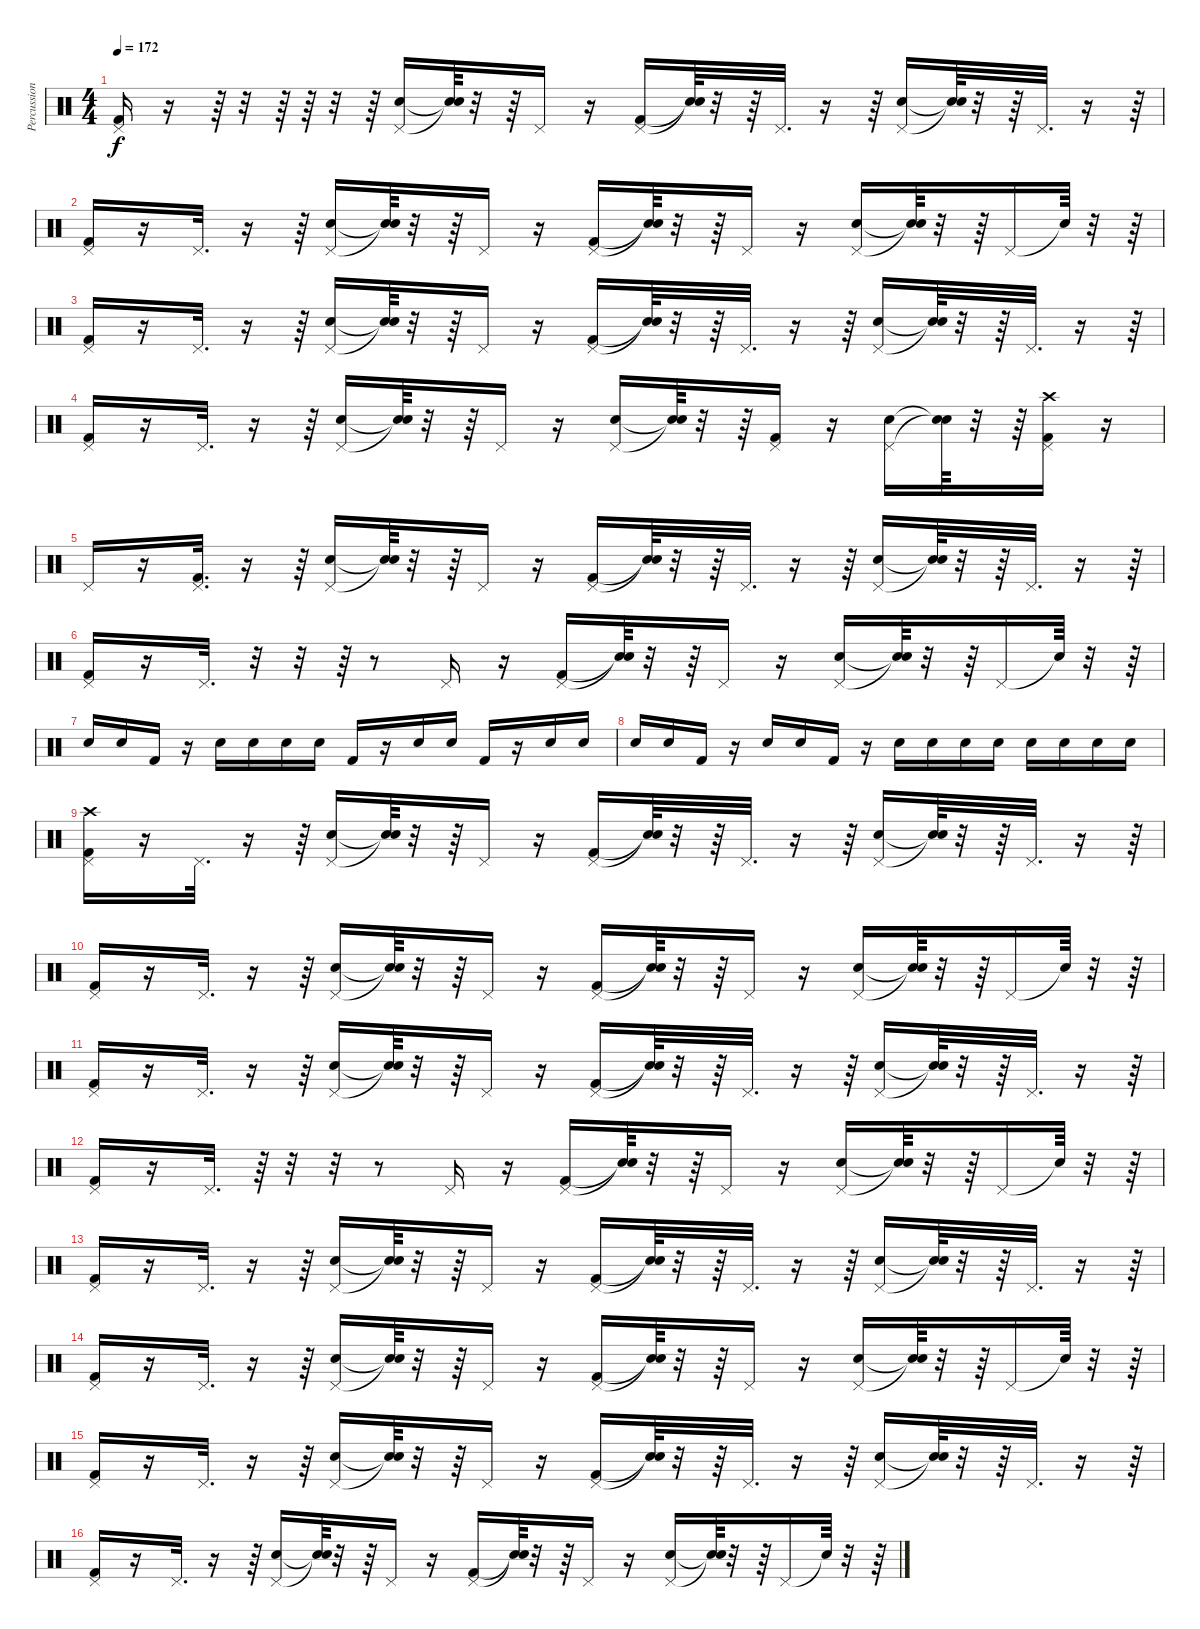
\track ("Percussions" "Percussion") {instrument percussion}
\staff {score}
\articulation defaults
\ts (4 4)
\tempo 172
\clef neutral
\ks c
("Pedal Hi-Hat (hit)" "Kick (hit) 2").16{dy f} r.16 r.64 r.32 r.64 r.64 r.32 r.64 ("Pedal Hi-Hat (hit)" "Snare (hit) 2").16 ("Snare (hit)"{t} "Snare (hit)"{t}).64 r.32 r.64 "Pedal Hi-Hat (hit)".16 r.16 ("Pedal Hi-Hat (hit)" "Kick (hit) 2").16 ("Snare (hit)"{t} "Snare (hit)"{t}).64 r.32 r.64 "Pedal Hi-Hat (hit)".32{d} r.16 r.64 ("Pedal Hi-Hat (hit)" "Snare (hit) 2").16 ("Snare (hit)"{t} "Snare (hit)"{t}).64 r.32 r.64 "Pedal Hi-Hat (hit)".32{d} r.16 r.64 |
("Pedal Hi-Hat (hit)" "Kick (hit) 2").16 r.16 "Pedal Hi-Hat (hit)".32{d} r.16 r.64 ("Pedal Hi-Hat (hit)" "Snare (hit) 2").16 ("Snare (hit)"{t} "Snare (hit)"{t}).64 r.32 r.64 "Pedal Hi-Hat (hit)".16 r.16 ("Pedal Hi-Hat (hit)" "Kick (hit) 2").16 ("Snare (hit)"{t} "Snare (hit)"{t}).64 r.32 r.64 "Pedal Hi-Hat (hit)".16 r.16 ("Pedal Hi-Hat (hit)" "Snare (hit) 2").16 ("Snare (hit)"{t} "Snare (hit)"{t}).64 r.32 r.64 "Pedal Hi-Hat (hit)".16 "Snare (hit)"{t}.64 r.32 r.64 |
("Pedal Hi-Hat (hit)" "Kick (hit) 2").16 r.16 "Pedal Hi-Hat (hit)".32{d} r.16 r.64 ("Pedal Hi-Hat (hit)" "Snare (hit) 2").16 ("Snare (hit)"{t} "Snare (hit)"{t}).64 r.32 r.64 "Pedal Hi-Hat (hit)".16 r.16 ("Pedal Hi-Hat (hit)" "Kick (hit) 2").16 ("Snare (hit)"{t} "Snare (hit)"{t}).64 r.32 r.64 "Pedal Hi-Hat (hit)".32{d} r.16 r.64 ("Pedal Hi-Hat (hit)" "Snare (hit) 2").16 ("Snare (hit)"{t} "Snare (hit)"{t}).64 r.32 r.64 "Pedal Hi-Hat (hit)".32{d} r.16 r.64 |
("Pedal Hi-Hat (hit)" "Kick (hit) 2").16 r.16 "Pedal Hi-Hat (hit)".32{d} r.16 r.64 ("Pedal Hi-Hat (hit)" "Snare (hit) 2").16 ("Snare (hit)"{t} "Snare (hit)"{t}).64 r.32 r.64 "Pedal Hi-Hat (hit)".16 r.16 ("Pedal Hi-Hat (hit)" "Snare (hit) 2").16 ("Snare (hit)"{t} "Snare (hit)"{t}).64 r.32 r.64 ("Pedal Hi-Hat (hit)" "Kick (hit) 2").16 r.16 ("Pedal Hi-Hat (hit)" "Snare (hit) 2").16 ("Snare (hit)"{t} "Snare (hit)"{t}).64 r.32 r.64 ("Crash high (hit)" "Pedal Hi-Hat (hit)" "Kick (hit) 2").16 r.16 |
"Pedal Hi-Hat (hit)".16 r.16 ("Pedal Hi-Hat (hit)" "Kick (hit) 2").32{d} r.16 r.64 ("Pedal Hi-Hat (hit)" "Snare (hit) 2").16 ("Snare (hit)"{t} "Snare (hit)"{t}).64 r.32 r.64 "Pedal Hi-Hat (hit)".16 r.16 ("Pedal Hi-Hat (hit)" "Kick (hit) 2").16 ("Snare (hit)"{t} "Snare (hit)"{t}).64 r.32 r.64 "Pedal Hi-Hat (hit)".32{d} r.16 r.64 ("Pedal Hi-Hat (hit)" "Snare (hit) 2").16 ("Snare (hit)"{t} "Snare (hit)"{t}).64 r.32 r.64 "Pedal Hi-Hat (hit)".32{d} r.16 r.64 |
("Pedal Hi-Hat (hit)" "Kick (hit) 2").16 r.16 "Pedal Hi-Hat (hit)".32{d} r.32 r.32 r.64 r.8 "Pedal Hi-Hat (hit)".16 r.16 ("Pedal Hi-Hat (hit)" "Kick (hit) 2").16 ("Snare (hit)"{t} "Snare (hit)"{t}).64 r.32 r.64 "Pedal Hi-Hat (hit)".16 r.16 ("Pedal Hi-Hat (hit)" "Snare (hit) 2").16 ("Snare (hit)"{t} "Snare (hit)"{t}).64 r.32 r.64 "Pedal Hi-Hat (hit)".16 "Snare (hit)"{t}.64 r.32 r.64 |
"Snare (hit) 2".16 "Snare (hit) 2".16 "Kick (hit) 2".16 r.16 "Snare (hit) 2".16 "Snare (hit) 2".16 "Snare (hit) 2".16 "Snare (hit) 2".16 "Kick (hit) 2".16 r.16 "Snare (hit) 2".16 "Snare (hit) 2".16 "Kick (hit) 2".16 r.16 "Snare (hit) 2".16 "Snare (hit) 2".16 |
"Snare (hit) 2".16 "Snare (hit) 2".16 "Kick (hit) 2".16 r.16 "Snare (hit) 2".16 "Snare (hit) 2".16 "Kick (hit) 2".16 r.16 "Snare (hit) 2".16 "Snare (hit) 2".16 "Snare (hit) 2".16 "Snare (hit) 2".16 "Snare (hit) 2".16 "Snare (hit) 2".16 "Snare (hit) 2".16 "Snare (hit) 2".16 |
("Pedal Hi-Hat (hit)" "Crash high (hit)" "Kick (hit) 2").16 r.16 "Pedal Hi-Hat (hit)".32{d} r.16 r.64 ("Pedal Hi-Hat (hit)" "Snare (hit) 2").16 ("Snare (hit)"{t} "Snare (hit)"{t}).64 r.32 r.64 "Pedal Hi-Hat (hit)".16 r.16 ("Pedal Hi-Hat (hit)" "Kick (hit) 2").16 ("Snare (hit)"{t} "Snare (hit)"{t}).64 r.32 r.64 "Pedal Hi-Hat (hit)".32{d} r.16 r.64 ("Pedal Hi-Hat (hit)" "Snare (hit) 2").16 ("Snare (hit)"{t} "Snare (hit)"{t}).64 r.32 r.64 "Pedal Hi-Hat (hit)".32{d} r.16 r.64 |
("Pedal Hi-Hat (hit)" "Kick (hit) 2").16 r.16 "Pedal Hi-Hat (hit)".32{d} r.16 r.64 ("Pedal Hi-Hat (hit)" "Snare (hit) 2").16 ("Snare (hit)"{t} "Snare (hit)"{t}).64 r.32 r.64 "Pedal Hi-Hat (hit)".16 r.16 ("Pedal Hi-Hat (hit)" "Kick (hit) 2").16 ("Snare (hit)"{t} "Snare (hit)"{t}).64 r.32 r.64 "Pedal Hi-Hat (hit)".16 r.16 ("Pedal Hi-Hat (hit)" "Snare (hit) 2").16 ("Snare (hit)"{t} "Snare (hit)"{t}).64 r.32 r.64 "Pedal Hi-Hat (hit)".16 "Snare (hit)"{t}.64 r.32 r.64 |
("Pedal Hi-Hat (hit)" "Kick (hit) 2").16 r.16 "Pedal Hi-Hat (hit)".32{d} r.16 r.64 ("Pedal Hi-Hat (hit)" "Snare (hit) 2").16 ("Snare (hit)"{t} "Snare (hit)"{t}).64 r.32 r.64 "Pedal Hi-Hat (hit)".16 r.16 ("Pedal Hi-Hat (hit)" "Kick (hit) 2").16 ("Snare (hit)"{t} "Snare (hit)"{t}).64 r.32 r.64 "Pedal Hi-Hat (hit)".32{d} r.16 r.64 ("Pedal Hi-Hat (hit)" "Snare (hit) 2").16 ("Snare (hit)"{t} "Snare (hit)"{t}).64 r.32 r.64 "Pedal Hi-Hat (hit)".32{d} r.16 r.64 |
("Pedal Hi-Hat (hit)" "Kick (hit) 2").16 r.16 "Pedal Hi-Hat (hit)".32{d} r.64 r.32 r.32 r.8 "Pedal Hi-Hat (hit)".16 r.16 ("Pedal Hi-Hat (hit)" "Kick (hit) 2").16 ("Snare (hit)"{t} "Snare (hit)"{t}).64 r.32 r.64 "Pedal Hi-Hat (hit)".16 r.16 ("Pedal Hi-Hat (hit)" "Snare (hit) 2").16 ("Snare (hit)"{t} "Snare (hit)"{t}).64 r.32 r.64 "Pedal Hi-Hat (hit)".16 "Snare (hit)"{t}.64 r.32 r.64 |
("Pedal Hi-Hat (hit)" "Kick (hit) 2").16 r.16 "Pedal Hi-Hat (hit)".32{d} r.16 r.64 ("Pedal Hi-Hat (hit)" "Snare (hit) 2").16 ("Snare (hit)"{t} "Snare (hit)"{t}).64 r.32 r.64 "Pedal Hi-Hat (hit)".16 r.16 ("Pedal Hi-Hat (hit)" "Kick (hit) 2").16 ("Snare (hit)"{t} "Snare (hit)"{t}).64 r.32 r.64 "Pedal Hi-Hat (hit)".32{d} r.16 r.64 ("Pedal Hi-Hat (hit)" "Snare (hit) 2").16 ("Snare (hit)"{t} "Snare (hit)"{t}).64 r.32 r.64 "Pedal Hi-Hat (hit)".32{d} r.16 r.64 |
("Pedal Hi-Hat (hit)" "Kick (hit) 2").16 r.16 "Pedal Hi-Hat (hit)".32{d} r.16 r.64 ("Pedal Hi-Hat (hit)" "Snare (hit) 2").16 ("Snare (hit)"{t} "Snare (hit)"{t}).64 r.32 r.64 "Pedal Hi-Hat (hit)".16 r.16 ("Pedal Hi-Hat (hit)" "Kick (hit) 2").16 ("Snare (hit)"{t} "Snare (hit)"{t}).64 r.32 r.64 "Pedal Hi-Hat (hit)".16 r.16 ("Pedal Hi-Hat (hit)" "Snare (hit) 2").16 ("Snare (hit)"{t} "Snare (hit)"{t}).64 r.32 r.64 "Pedal Hi-Hat (hit)".16 "Snare (hit)"{t}.64 r.32 r.64 |
("Pedal Hi-Hat (hit)" "Kick (hit) 2").16 r.16 "Pedal Hi-Hat (hit)".32{d} r.16 r.64 ("Pedal Hi-Hat (hit)" "Snare (hit) 2").16 ("Snare (hit)"{t} "Snare (hit)"{t}).64 r.32 r.64 "Pedal Hi-Hat (hit)".16 r.16 ("Pedal Hi-Hat (hit)" "Kick (hit) 2").16 ("Snare (hit)"{t} "Snare (hit)"{t}).64 r.32 r.64 "Pedal Hi-Hat (hit)".32{d} r.16 r.64 ("Pedal Hi-Hat (hit)" "Snare (hit) 2").16 ("Snare (hit)"{t} "Snare (hit)"{t}).64 r.32 r.64 "Pedal Hi-Hat (hit)".32{d} r.16 r.64 |
("Pedal Hi-Hat (hit)" "Kick (hit) 2").16 r.16 "Pedal Hi-Hat (hit)".32{d} r.16 r.64 ("Pedal Hi-Hat (hit)" "Snare (hit) 2").16 ("Snare (hit)"{t} "Snare (hit)"{t}).64 r.32 r.64 "Pedal Hi-Hat (hit)".16 r.16 ("Pedal Hi-Hat (hit)" "Kick (hit) 2").16 ("Snare (hit)"{t} "Snare (hit)"{t}).64 r.32 r.64 "Pedal Hi-Hat (hit)".16 r.16 ("Pedal Hi-Hat (hit)" "Snare (hit) 2").16 ("Snare (hit)"{t} "Snare (hit)"{t}).64 r.32 r.64 "Pedal Hi-Hat (hit)".16 "Snare (hit)"{t}.64 r.32 r.64
